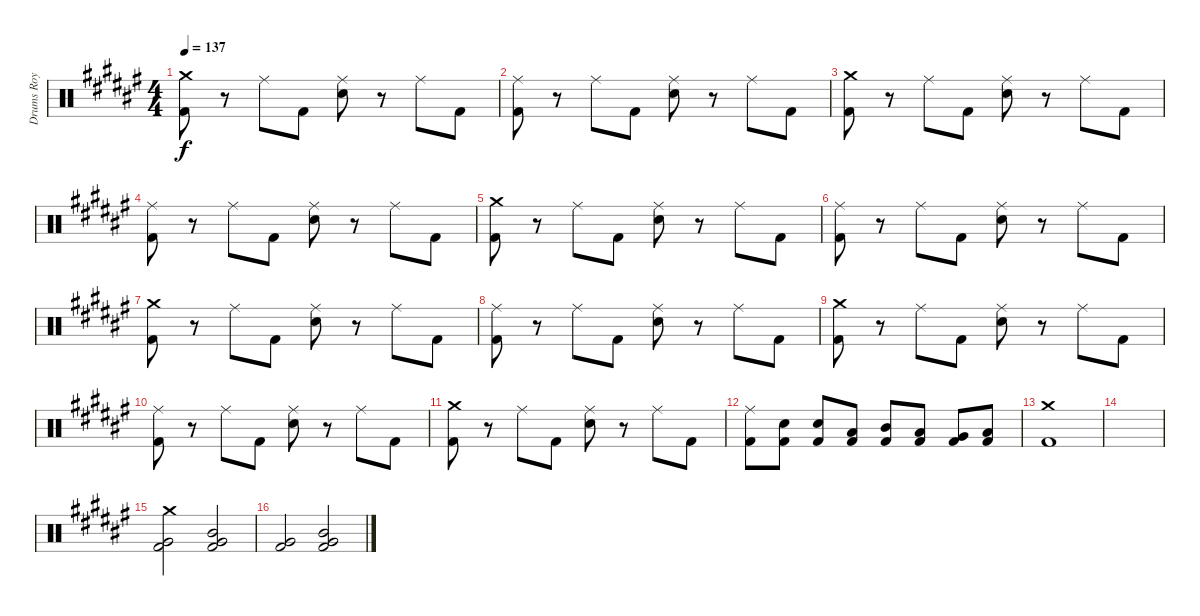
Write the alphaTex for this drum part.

\track ("Drums Roy mayorga" "Drums Roy ") {instrument percussion}
\staff {score}
\articulation defaults
\ts (4 4)
\tempo 137
\clef neutral
\ks d#minor
("Crash medium (hit)" "Kick (hit) 2").8{dy f} r.8 "Ride (middle)".8 "Kick (hit) 2".8 ("Ride (middle)" "Electric Snare (hit)").8 r.8 "Ride (middle)".8 "Kick (hit) 2".8 |
("Ride (middle)" "Kick (hit) 2").8 r.8 "Ride (middle)".8 "Kick (hit) 2".8 ("Ride (middle)" "Electric Snare (hit)").8 r.8 "Ride (middle)".8 "Kick (hit) 2".8 |
("Crash medium (hit)" "Kick (hit) 2").8 r.8 "Ride (middle)".8 "Kick (hit) 2".8 ("Ride (middle)" "Electric Snare (hit)").8 r.8 "Ride (middle)".8 "Kick (hit) 2".8 |
("Ride (middle)" "Kick (hit) 2").8 r.8 "Ride (middle)".8 "Kick (hit) 2".8 ("Ride (middle)" "Electric Snare (hit)").8 r.8 "Ride (middle)".8 "Kick (hit) 2".8 |
("Crash medium (hit)" "Kick (hit) 2").8 r.8 "Ride (middle)".8 "Kick (hit) 2".8 ("Ride (middle)" "Electric Snare (hit)").8 r.8 "Ride (middle)".8 "Kick (hit) 2".8 |
("Ride (middle)" "Kick (hit) 2").8 r.8 "Ride (middle)".8 "Kick (hit) 2".8 ("Ride (middle)" "Electric Snare (hit)").8 r.8 "Ride (middle)".8 "Kick (hit) 2".8 |
("Crash medium (hit)" "Kick (hit) 2").8 r.8 "Ride (middle)".8 "Kick (hit) 2".8 ("Ride (middle)" "Electric Snare (hit)").8 r.8 "Ride (middle)".8 "Kick (hit) 2".8 |
("Ride (middle)" "Kick (hit) 2").8 r.8 "Ride (middle)".8 "Kick (hit) 2".8 ("Ride (middle)" "Electric Snare (hit)").8 r.8 "Ride (middle)".8 "Kick (hit) 2".8 |
("Crash medium (hit)" "Kick (hit) 2").8 r.8 "Ride (middle)".8 "Kick (hit) 2".8 ("Ride (middle)" "Electric Snare (hit)").8 r.8 "Ride (middle)".8 "Kick (hit) 2".8 |
("Ride (middle)" "Kick (hit) 2").8 r.8 "Ride (middle)".8 "Kick (hit) 2".8 ("Ride (middle)" "Electric Snare (hit)").8 r.8 "Ride (middle)".8 "Kick (hit) 2".8 |
("Crash medium (hit)" "Kick (hit) 2").8 r.8 "Ride (middle)".8 "Kick (hit) 2".8 ("Ride (middle)" "Electric Snare (hit)").8 r.8 "Ride (middle)".8 "Kick (hit) 2".8 |
("Ride (middle)" "Kick (hit) 2").8 ("Electric Snare (hit)" "Kick (hit) 2").8 ("Electric Snare (hit)" "Kick (hit) 2").8 ("Low Floor Tom (hit)" "Kick (hit) 2").8 ("Mid Tom (hit)" "Kick (hit) 2").8 ("Low Tom (hit)" "Kick (hit) 2").8 ("Very Low Tom (hit)" "Kick (hit) 2").8 ("Low Floor Tom (hit)" "Kick (hit) 2").8 |
("Crash medium (hit)" "Kick (hit) 2").1 |
|
("Crash medium (hit)" "Very Low Tom (hit)" "Kick (hit) 2").2 ("Mid Tom (hit)" "Very Low Tom (hit)" "Kick (hit) 2").2 |
("Very Low Tom (hit)" "Kick (hit) 2").2 ("Mid Tom (hit)" "Very Low Tom (hit)" "Kick (hit) 2").2
